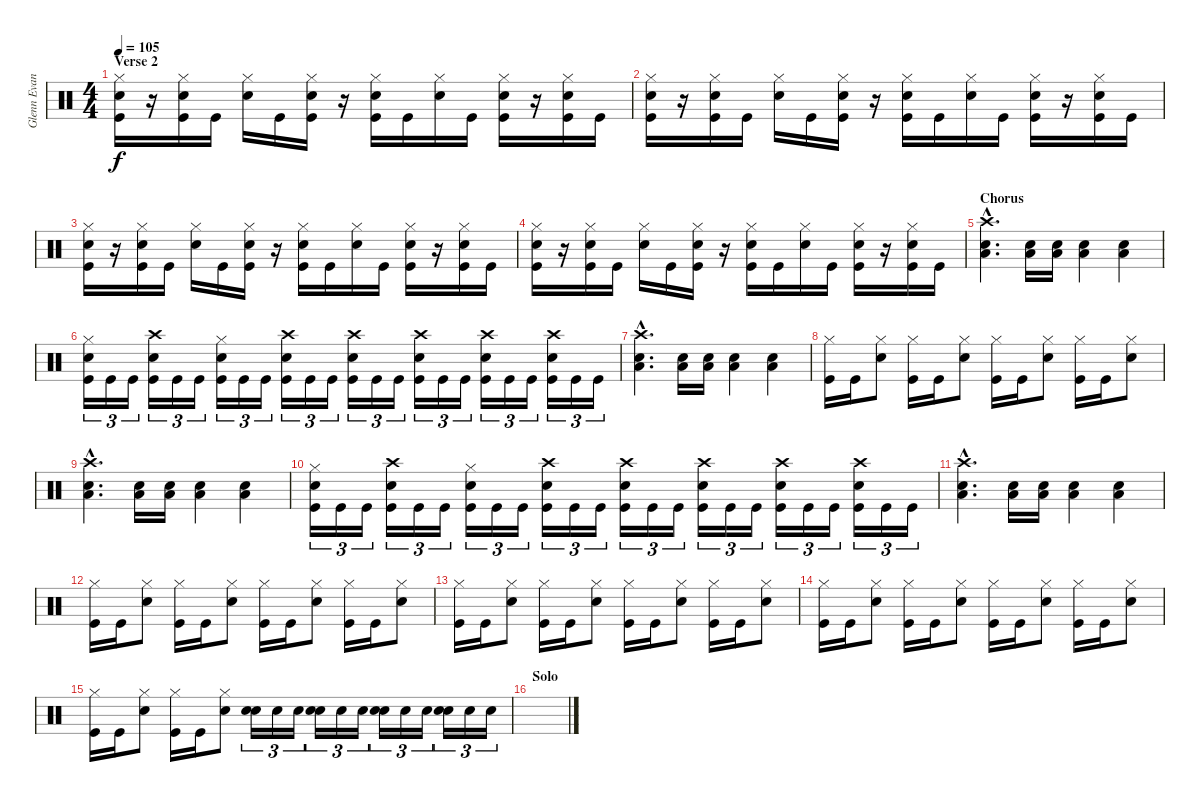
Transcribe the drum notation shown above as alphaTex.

\track ("Glenn Evans" "Glenn Evan") {instrument percussion}
\staff {score}
\articulation defaults
\ts (4 4)
\section ("" "Verse 2")
\tempo 105
\clef neutral
\ks c
("Hi-Hat (closed)" "Snare (hit) 2" "Kick (hit)").16{dy f} r.16 ("Hi-Hat (closed)" "Snare (hit) 2" "Kick (hit)").16 "Kick (hit)".16 ("Hi-Hat (closed)" "Snare (hit) 2").16 "Kick (hit)".16 ("Hi-Hat (closed)" "Snare (hit) 2" "Kick (hit)").16 r.16 ("Hi-Hat (closed)" "Snare (hit) 2" "Kick (hit)").16 "Kick (hit)".16 ("Hi-Hat (closed)" "Snare (hit) 2").16 "Kick (hit)".16 ("Hi-Hat (closed)" "Snare (hit) 2" "Kick (hit)").16 r.16 ("Hi-Hat (closed)" "Snare (hit) 2" "Kick (hit)").16 "Kick (hit)".16 |
("Hi-Hat (closed)" "Snare (hit) 2" "Kick (hit)").16 r.16 ("Hi-Hat (closed)" "Snare (hit) 2" "Kick (hit)").16 "Kick (hit)".16 ("Hi-Hat (closed)" "Snare (hit) 2").16 "Kick (hit)".16 ("Hi-Hat (closed)" "Snare (hit) 2" "Kick (hit)").16 r.16 ("Hi-Hat (closed)" "Snare (hit) 2" "Kick (hit)").16 "Kick (hit)".16 ("Hi-Hat (closed)" "Snare (hit) 2").16 "Kick (hit)".16 ("Hi-Hat (closed)" "Snare (hit) 2" "Kick (hit)").16 r.16 ("Hi-Hat (closed)" "Snare (hit) 2" "Kick (hit)").16 "Kick (hit)".16 |
("Hi-Hat (closed)" "Snare (hit) 2" "Kick (hit)").16 r.16 ("Hi-Hat (closed)" "Snare (hit) 2" "Kick (hit)").16 "Kick (hit)".16 ("Hi-Hat (closed)" "Snare (hit) 2").16 "Kick (hit)".16 ("Hi-Hat (closed)" "Snare (hit) 2" "Kick (hit)").16 r.16 ("Hi-Hat (closed)" "Snare (hit) 2" "Kick (hit)").16 "Kick (hit)".16 ("Hi-Hat (closed)" "Snare (hit) 2").16 "Kick (hit)".16 ("Hi-Hat (closed)" "Snare (hit) 2" "Kick (hit)").16 r.16 ("Hi-Hat (closed)" "Snare (hit) 2" "Kick (hit)").16 "Kick (hit)".16 |
("Hi-Hat (closed)" "Snare (hit) 2" "Kick (hit)").16 r.16 ("Hi-Hat (closed)" "Snare (hit) 2" "Kick (hit)").16 "Kick (hit)".16 ("Hi-Hat (closed)" "Snare (hit) 2").16 "Kick (hit)".16 ("Hi-Hat (closed)" "Snare (hit) 2" "Kick (hit)").16 r.16 ("Hi-Hat (closed)" "Snare (hit) 2" "Kick (hit)").16 "Kick (hit)".16 ("Hi-Hat (closed)" "Snare (hit) 2").16 "Kick (hit)".16 ("Hi-Hat (closed)" "Snare (hit) 2" "Kick (hit)").16 r.16 ("Hi-Hat (closed)" "Snare (hit) 2" "Kick (hit)").16 "Kick (hit)".16 |
\section ("" "Chorus")
("Crash high (hit)"{hac} "Snare (hit) 2"{hac} "Low Floor Tom (hit)"{hac}).4{d} ("Snare (hit) 2" "Low Floor Tom (hit)").16 ("Snare (hit) 2" "Low Floor Tom (hit)").16 ("Snare (hit) 2" "Low Floor Tom (hit)").4 ("Snare (hit) 2" "Low Floor Tom (hit)").4 |
("Hi-Hat (closed)" "Snare (hit) 2" "Kick (hit)").16{tu (3 2)} "Kick (hit)".16{tu (3 2)} "Kick (hit)".16{tu (3 2)} ("Crash high (hit)" "Snare (hit) 2" "Kick (hit)").16{tu (3 2)} "Kick (hit)".16{tu (3 2)} "Kick (hit)".16{tu (3 2)} ("Hi-Hat (closed)" "Snare (hit) 2" "Kick (hit)").16{tu (3 2)} "Kick (hit)".16{tu (3 2)} "Kick (hit)".16{tu (3 2)} ("Crash high (hit)" "Snare (hit) 2" "Kick (hit)").16{tu (3 2)} "Kick (hit)".16{tu (3 2)} "Kick (hit)".16{tu (3 2)} ("Crash high (hit)" "Snare (hit) 2" "Kick (hit)").16{tu (3 2)} "Kick (hit)".16{tu (3 2)} "Kick (hit)".16{tu (3 2)} ("Crash high (hit)" "Snare (hit) 2" "Kick (hit)").16{tu (3 2)} "Kick (hit)".16{tu (3 2)} "Kick (hit)".16{tu (3 2)} ("Crash high (hit)" "Snare (hit) 2" "Kick (hit)").16{tu (3 2)} "Kick (hit)".16{tu (3 2)} "Kick (hit)".16{tu (3 2)} ("Crash high (hit)" "Snare (hit) 2" "Kick (hit)").16{tu (3 2)} "Kick (hit)".16{tu (3 2)} "Kick (hit)".16{tu (3 2)} |
("Crash high (hit)"{hac} "Snare (hit) 2"{hac} "Low Floor Tom (hit)"{hac}).4{d} ("Snare (hit) 2" "Low Floor Tom (hit)").16 ("Snare (hit) 2" "Low Floor Tom (hit)").16 ("Snare (hit) 2" "Low Floor Tom (hit)").4 ("Snare (hit) 2" "Low Floor Tom (hit)").4 |
("Hi-Hat (closed)" "Kick (hit)").16 "Kick (hit)".16 ("Hi-Hat (closed)" "Snare (hit) 2").8 ("Hi-Hat (closed)" "Kick (hit)").16 "Kick (hit)".16 ("Hi-Hat (closed)" "Snare (hit) 2").8 ("Hi-Hat (closed)" "Kick (hit)").16 "Kick (hit)".16 ("Hi-Hat (closed)" "Snare (hit) 2").8 ("Hi-Hat (closed)" "Kick (hit)").16 "Kick (hit)".16 ("Hi-Hat (closed)" "Snare (hit) 2").8 |
("Crash high (hit)"{hac} "Snare (hit) 2"{hac} "Low Floor Tom (hit)"{hac}).4{d} ("Snare (hit) 2" "Low Floor Tom (hit)").16 ("Snare (hit) 2" "Low Floor Tom (hit)").16 ("Snare (hit) 2" "Low Floor Tom (hit)").4 ("Snare (hit) 2" "Low Floor Tom (hit)").4 |
("Hi-Hat (closed)" "Snare (hit) 2" "Kick (hit)").16{tu (3 2)} "Kick (hit)".16{tu (3 2)} "Kick (hit)".16{tu (3 2)} ("Crash high (hit)" "Snare (hit) 2" "Kick (hit)").16{tu (3 2)} "Kick (hit)".16{tu (3 2)} "Kick (hit)".16{tu (3 2)} ("Hi-Hat (closed)" "Snare (hit) 2" "Kick (hit)").16{tu (3 2)} "Kick (hit)".16{tu (3 2)} "Kick (hit)".16{tu (3 2)} ("Crash high (hit)" "Snare (hit) 2" "Kick (hit)").16{tu (3 2)} "Kick (hit)".16{tu (3 2)} "Kick (hit)".16{tu (3 2)} ("Crash high (hit)" "Snare (hit) 2" "Kick (hit)").16{tu (3 2)} "Kick (hit)".16{tu (3 2)} "Kick (hit)".16{tu (3 2)} ("Crash high (hit)" "Snare (hit) 2" "Kick (hit)").16{tu (3 2)} "Kick (hit)".16{tu (3 2)} "Kick (hit)".16{tu (3 2)} ("Crash high (hit)" "Snare (hit) 2" "Kick (hit)").16{tu (3 2)} "Kick (hit)".16{tu (3 2)} "Kick (hit)".16{tu (3 2)} ("Crash high (hit)" "Snare (hit) 2" "Kick (hit)").16{tu (3 2)} "Kick (hit)".16{tu (3 2)} "Kick (hit)".16{tu (3 2)} |
("Crash high (hit)"{hac} "Snare (hit) 2"{hac} "Low Floor Tom (hit)"{hac}).4{d} ("Snare (hit) 2" "Low Floor Tom (hit)").16 ("Snare (hit) 2" "Low Floor Tom (hit)").16 ("Snare (hit) 2" "Low Floor Tom (hit)").4 ("Snare (hit) 2" "Low Floor Tom (hit)").4 |
("Hi-Hat (closed)" "Kick (hit)").16 "Kick (hit)".16 ("Hi-Hat (closed)" "Snare (hit) 2").8 ("Hi-Hat (closed)" "Kick (hit)").16 "Kick (hit)".16 ("Hi-Hat (closed)" "Snare (hit) 2").8 ("Hi-Hat (closed)" "Kick (hit)").16 "Kick (hit)".16 ("Hi-Hat (closed)" "Snare (hit) 2").8 ("Hi-Hat (closed)" "Kick (hit)").16 "Kick (hit)".16 ("Hi-Hat (closed)" "Snare (hit) 2").8 |
("Hi-Hat (closed)" "Kick (hit)").16 "Kick (hit)".16 ("Hi-Hat (closed)" "Snare (hit) 2").8 ("Hi-Hat (closed)" "Kick (hit)").16 "Kick (hit)".16 ("Hi-Hat (closed)" "Snare (hit) 2").8 ("Hi-Hat (closed)" "Kick (hit)").16 "Kick (hit)".16 ("Hi-Hat (closed)" "Snare (hit) 2").8 ("Hi-Hat (closed)" "Kick (hit)").16 "Kick (hit)".16 ("Hi-Hat (closed)" "Snare (hit) 2").8 |
("Hi-Hat (closed)" "Kick (hit)").16 "Kick (hit)".16 ("Hi-Hat (closed)" "Snare (hit) 2").8 ("Hi-Hat (closed)" "Kick (hit)").16 "Kick (hit)".16 ("Hi-Hat (closed)" "Snare (hit) 2").8 ("Hi-Hat (closed)" "Kick (hit)").16 "Kick (hit)".16 ("Hi-Hat (closed)" "Snare (hit) 2").8 ("Hi-Hat (closed)" "Kick (hit)").16 "Kick (hit)".16 ("Hi-Hat (closed)" "Snare (hit) 2").8 |
("Hi-Hat (closed)" "Kick (hit)").16 "Kick (hit)".16 ("Hi-Hat (closed)" "Snare (hit) 2").8 ("Hi-Hat (closed)" "Kick (hit)").16 "Kick (hit)".16 ("Hi-Hat (closed)" "Snare (hit) 2").8 ("Snare (hit) 2" "Snare (hit) 2").16{tu (3 2)} "Snare (hit) 2".16{tu (3 2)} "Snare (hit) 2".16{tu (3 2)} ("Snare (hit) 2" "Snare (hit) 2").16{tu (3 2)} "Snare (hit) 2".16{tu (3 2)} "Snare (hit) 2".16{tu (3 2)} ("Snare (hit) 2" "Snare (hit) 2").16{tu (3 2)} "Snare (hit) 2".16{tu (3 2)} "Snare (hit) 2".16{tu (3 2)} ("Snare (hit) 2" "Snare (hit) 2").16{tu (3 2)} "Snare (hit) 2".16{tu (3 2)} "Snare (hit) 2".16{tu (3 2)} |
\section ("" "Solo")
